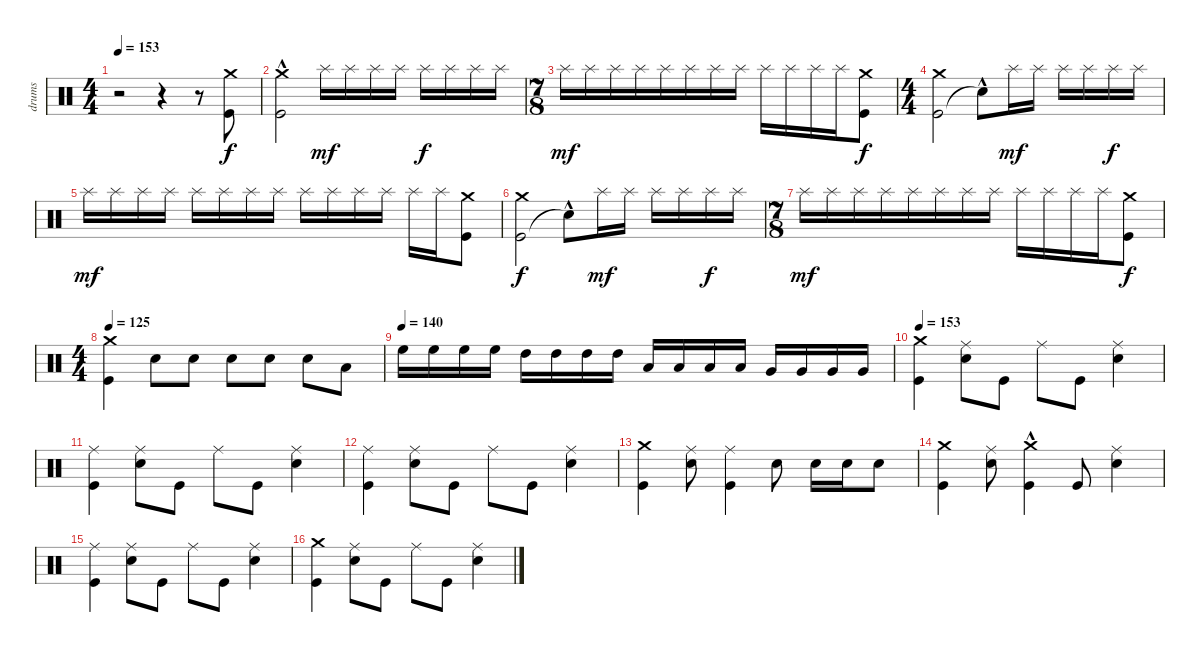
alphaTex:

\track ("drums" "drums") {instrument percussion}
\staff {score}
\articulation defaults
\ts (4 4)
\tempo 153
\tempo 117
\tempo 153
\clef neutral
\ks c
r.2{dy f} r.4 r.8 ("Crash medium (hit)" "Kick (hit)").8 |
("Kick (hit)" "Crash medium (hit)"{hac}).2 "Splash (hit)".16{dy mf} "Splash (hit)".16 "Splash (hit)".16 "Splash (hit)".16 "Splash (hit)".16{dy f} "Splash (hit)".16 "Splash (hit)".16 "Splash (hit)".16 |
\ts (7 8)
"Splash (hit)".16{dy mf} "Splash (hit)".16 "Splash (hit)".16 "Splash (hit)".16 "Splash (hit)".16 "Splash (hit)".16 "Splash (hit)".16 "Splash (hit)".16 "Splash (hit)".16 "Splash (hit)".16 "Splash (hit)".16 "Splash (hit)".16 ("Crash medium (hit)" "Kick (hit)").8{dy f} |
\ts (4 4)
("Kick (hit)" "Crash medium (hit)").2 "Snare (hit)"{hac t}.8 "Splash (hit)".16{dy mf} "Splash (hit)".16 "Splash (hit)".16 "Splash (hit)".16 "Splash (hit)".16{dy f} "Splash (hit)".16 |
"Splash (hit)".16{dy mf} "Splash (hit)".16 "Splash (hit)".16 "Splash (hit)".16 "Splash (hit)".16 "Splash (hit)".16 "Splash (hit)".16 "Splash (hit)".16 "Splash (hit)".16 "Splash (hit)".16 "Splash (hit)".16 "Splash (hit)".16 "Splash (hit)".16 "Splash (hit)".16 ("Crash medium (hit)" "Kick (hit)").8 |
("Kick (hit)" "Crash medium (hit)").2{dy f} "Snare (hit)"{hac t}.8 "Splash (hit)".16{dy mf} "Splash (hit)".16 "Splash (hit)".16 "Splash (hit)".16 "Splash (hit)".16{dy f} "Splash (hit)".16 |
\ts (7 8)
"Splash (hit)".16{dy mf} "Splash (hit)".16 "Splash (hit)".16 "Splash (hit)".16 "Splash (hit)".16 "Splash (hit)".16 "Splash (hit)".16 "Splash (hit)".16 "Splash (hit)".16 "Splash (hit)".16 "Splash (hit)".16 "Splash (hit)".16 ("Crash medium (hit)" "Kick (hit)").8{dy f} |
\ts (4 4)
\tempo 125
("Crash medium (hit)" "Kick (hit)").4 "Snare (hit) 2".8 "Snare (hit) 2".8 "Snare (hit) 2".8 "Snare (hit) 2".8 "Snare (hit) 2".8 "Low Tom (hit)".8 |
\tempo (140)
"High Floor Tom (hit)".16 "High Floor Tom (hit)".16 "High Floor Tom (hit)".16 "High Floor Tom (hit)".16 "High Tom (hit)".16 "High Tom (hit)".16 "High Tom (hit)".16 "High Tom (hit)".16 "Low Tom (hit)".16 "Low Tom (hit)".16 "Low Tom (hit)".16 "Low Tom (hit)".16 "Very Low Tom (hit)".16 "Very Low Tom (hit)".16 "Very Low Tom (hit)".16 "Very Low Tom (hit)".16 |
\tempo 153
("Crash medium (hit)" "Kick (hit)").4 ("Ride (middle)" "Snare (hit) 2").8 "Kick (hit)".8 "Ride (middle)".8 "Kick (hit)".8 ("Ride (middle)" "Snare (hit) 2").4 |
("Kick (hit)" "Ride (middle)").4 ("Ride (middle)" "Snare (hit) 2").8 "Kick (hit)".8 "Ride (middle)".8 "Kick (hit)".8 ("Ride (middle)" "Snare (hit) 2").4 |
("Kick (hit)" "Ride (middle)").4 ("Ride (middle)" "Snare (hit) 2").8 "Kick (hit)".8 "Ride (middle)".8 "Kick (hit)".8 ("Ride (middle)" "Snare (hit) 2").4 |
("Crash medium (hit)" "Kick (hit)").4 ("Snare (hit) 2" "Ride (middle)").8 ("Kick (hit)" "Ride (middle)").4 "Snare (hit) 2".8 "Snare (hit) 2".16 "Snare (hit) 2".16 "Snare (hit) 2".8 |
("Kick (hit)" "Crash medium (hit)").4 ("Ride (middle)" "Snare (hit) 2").8 ("Crash medium (hit)"{hac} "Kick (hit)").4 "Kick (hit)".8 ("Ride (middle)" "Snare (hit) 2").4 |
("Kick (hit)" "Ride (middle)").4 ("Snare (hit) 2" "Ride (middle)").8 "Kick (hit)".8 "Ride (middle)".8 "Kick (hit)".8 ("Snare (hit) 2" "Ride (middle)").4 |
("Kick (hit)" "Crash medium (hit)").4 ("Snare (hit) 2" "Ride (middle)").8 "Kick (hit)".8 "Ride (middle)".8 "Kick (hit)".8 ("Ride (middle)" "Snare (hit) 2").4
